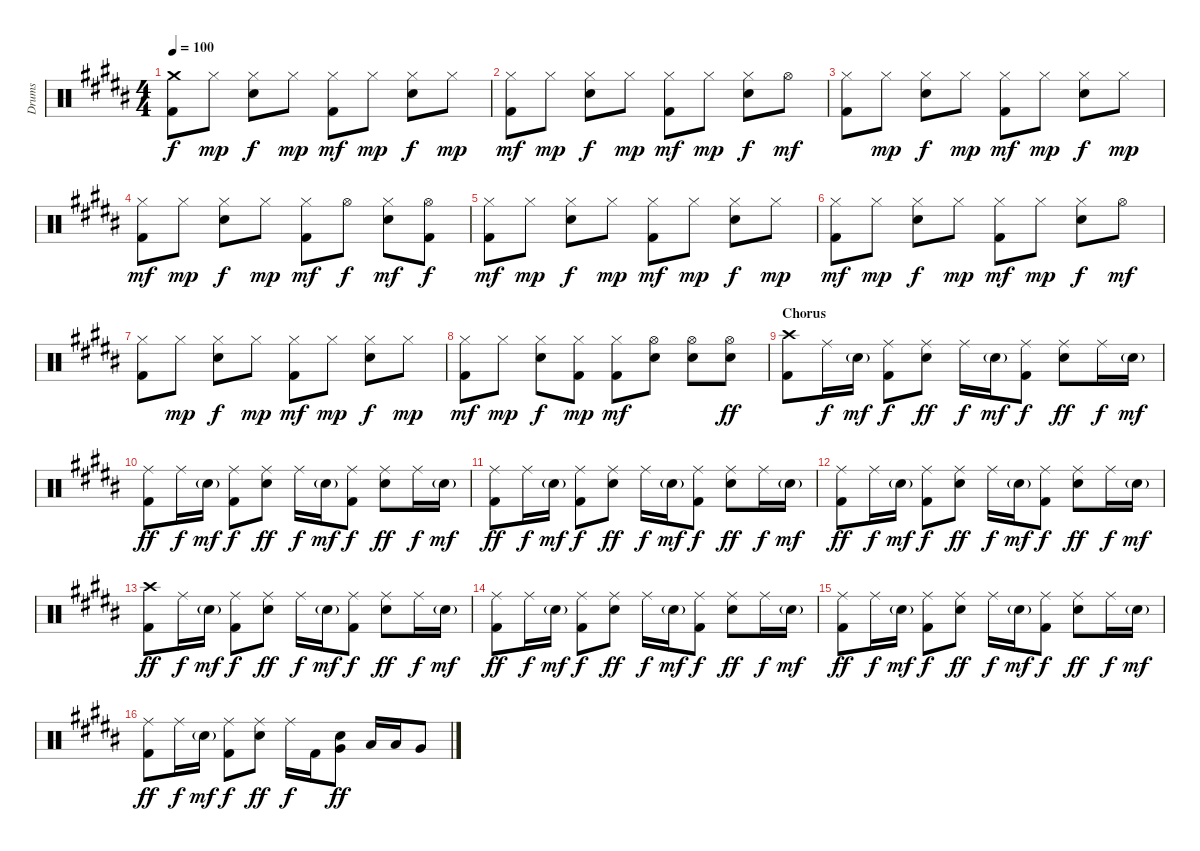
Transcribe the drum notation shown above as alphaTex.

\track ("Drums" "Drums") {instrument percussion}
\staff {score}
\articulation defaults
\ts (4 4)
\tempo 100
\clef neutral
\ks b
("Crash medium (hit)" "Kick (hit) 2").8{dy f} "Hi-Hat (closed)".8{dy mp} ("Hi-Hat (closed)" "Snare (hit) 2").8{dy f} "Hi-Hat (closed)".8{dy mp} ("Hi-Hat (closed)" "Kick (hit) 2").8{dy mf} "Hi-Hat (closed)".8{dy mp} ("Hi-Hat (closed)" "Snare (hit) 2").8{dy f} "Hi-Hat (closed)".8{dy mp} |
("Hi-Hat (closed)" "Kick (hit) 2").8{dy mf} "Hi-Hat (closed)".8{dy mp} ("Hi-Hat (closed)" "Snare (hit) 2").8{dy f} "Hi-Hat (closed)".8{dy mp} ("Hi-Hat (closed)" "Kick (hit) 2").8{dy mf} "Hi-Hat (closed)".8{dy mp} ("Hi-Hat (closed)" "Snare (hit) 2").8{dy f} "Hi-Hat (open)".8{dy mf} |
("Hi-Hat (closed)" "Kick (hit) 2").8 "Hi-Hat (closed)".8{dy mp} ("Hi-Hat (closed)" "Snare (hit) 2").8{dy f} "Hi-Hat (closed)".8{dy mp} ("Hi-Hat (closed)" "Kick (hit) 2").8{dy mf} "Hi-Hat (closed)".8{dy mp} ("Hi-Hat (closed)" "Snare (hit) 2").8{dy f} "Hi-Hat (closed)".8{dy mp} |
("Hi-Hat (closed)" "Kick (hit) 2").8{dy mf} "Hi-Hat (closed)".8{dy mp} ("Hi-Hat (closed)" "Snare (hit) 2").8{dy f} "Hi-Hat (closed)".8{dy mp} ("Hi-Hat (closed)" "Kick (hit) 2").8{dy mf} "Hi-Hat (open)".8{dy f} ("Hi-Hat (closed)" "Snare (hit) 2").8{dy mf} ("Hi-Hat (open)" "Kick (hit) 2").8{dy f} |
("Hi-Hat (closed)" "Kick (hit) 2").8{dy mf} "Hi-Hat (closed)".8{dy mp} ("Hi-Hat (closed)" "Snare (hit) 2").8{dy f} "Hi-Hat (closed)".8{dy mp} ("Hi-Hat (closed)" "Kick (hit) 2").8{dy mf} "Hi-Hat (closed)".8{dy mp} ("Hi-Hat (closed)" "Snare (hit) 2").8{dy f} "Hi-Hat (closed)".8{dy mp} |
("Hi-Hat (closed)" "Kick (hit) 2").8{dy mf} "Hi-Hat (closed)".8{dy mp} ("Hi-Hat (closed)" "Snare (hit) 2").8{dy f} "Hi-Hat (closed)".8{dy mp} ("Hi-Hat (closed)" "Kick (hit) 2").8{dy mf} "Hi-Hat (closed)".8{dy mp} ("Hi-Hat (closed)" "Snare (hit) 2").8{dy f} "Hi-Hat (open)".8{dy mf} |
("Hi-Hat (closed)" "Kick (hit) 2").8 "Hi-Hat (closed)".8{dy mp} ("Hi-Hat (closed)" "Snare (hit) 2").8{dy f} "Hi-Hat (closed)".8{dy mp} ("Hi-Hat (closed)" "Kick (hit) 2").8{dy mf} "Hi-Hat (closed)".8{dy mp} ("Hi-Hat (closed)" "Snare (hit) 2").8{dy f} "Hi-Hat (closed)".8{dy mp} |
("Hi-Hat (closed)" "Kick (hit) 2").8{dy mf} "Hi-Hat (closed)".8{dy mp} ("Hi-Hat (closed)" "Snare (hit) 2").8{dy f} ("Hi-Hat (closed)" "Kick (hit) 2").8{dy mp} ("Hi-Hat (closed)" "Kick (hit) 2").8{dy mf} ("Hi-Hat (open)" "Snare (hit) 2").8 ("Hi-Hat (open)" "Snare (hit) 2").8 ("Hi-Hat (open)" "Snare (hit) 2").8{dy ff} |
\section ("" "Chorus")
("Crash high (hit)" "Kick (hit) 2").8 "Ride (middle)".16{dy f} "Snare (hit) 2"{g}.16{dy mf} ("Ride (middle)" "Kick (hit) 2").8{dy f} ("Ride (middle)" "Snare (hit) 2").8{dy ff} "Ride (middle)".16{dy f} "Snare (hit) 2"{g}.16{dy mf} ("Ride (middle)" "Kick (hit) 2").8{dy f} ("Ride (middle)" "Snare (hit) 2").8{dy ff} "Ride (middle)".16{dy f} "Snare (hit) 2"{g}.16{dy mf} |
("Ride (middle)" "Kick (hit) 2").8{dy ff} "Ride (middle)".16{dy f} "Snare (hit) 2"{g}.16{dy mf} ("Ride (middle)" "Kick (hit) 2").8{dy f} ("Ride (middle)" "Snare (hit) 2").8{dy ff} "Ride (middle)".16{dy f} "Snare (hit) 2"{g}.16{dy mf} ("Ride (middle)" "Kick (hit) 2").8{dy f} ("Ride (middle)" "Snare (hit) 2").8{dy ff} "Ride (middle)".16{dy f} "Snare (hit) 2"{g}.16{dy mf} |
("Ride (middle)" "Kick (hit) 2").8{dy ff} "Ride (middle)".16{dy f} "Snare (hit) 2"{g}.16{dy mf} ("Ride (middle)" "Kick (hit) 2").8{dy f} ("Ride (middle)" "Snare (hit) 2").8{dy ff} "Ride (middle)".16{dy f} "Snare (hit) 2"{g}.16{dy mf} ("Ride (middle)" "Kick (hit) 2").8{dy f} ("Ride (middle)" "Snare (hit) 2").8{dy ff} "Ride (middle)".16{dy f} "Snare (hit) 2"{g}.16{dy mf} |
("Ride (middle)" "Kick (hit) 2").8{dy ff} "Ride (middle)".16{dy f} "Snare (hit) 2"{g}.16{dy mf} ("Ride (middle)" "Kick (hit) 2").8{dy f} ("Ride (middle)" "Snare (hit) 2").8{dy ff} "Ride (middle)".16{dy f} "Snare (hit) 2"{g}.16{dy mf} ("Ride (middle)" "Kick (hit) 2").8{dy f} ("Ride (middle)" "Snare (hit) 2").8{dy ff} "Ride (middle)".16{dy f} "Snare (hit) 2"{g}.16{dy mf} |
("Crash high (hit)" "Kick (hit) 2").8{dy ff} "Ride (middle)".16{dy f} "Snare (hit) 2"{g}.16{dy mf} ("Ride (middle)" "Kick (hit) 2").8{dy f} ("Ride (middle)" "Snare (hit) 2").8{dy ff} "Ride (middle)".16{dy f} "Snare (hit) 2"{g}.16{dy mf} ("Ride (middle)" "Kick (hit) 2").8{dy f} ("Ride (middle)" "Snare (hit) 2").8{dy ff} "Ride (middle)".16{dy f} "Snare (hit) 2"{g}.16{dy mf} |
("Ride (middle)" "Kick (hit) 2").8{dy ff} "Ride (middle)".16{dy f} "Snare (hit) 2"{g}.16{dy mf} ("Ride (middle)" "Kick (hit) 2").8{dy f} ("Ride (middle)" "Snare (hit) 2").8{dy ff} "Ride (middle)".16{dy f} "Snare (hit) 2"{g}.16{dy mf} ("Ride (middle)" "Kick (hit) 2").8{dy f} ("Ride (middle)" "Snare (hit) 2").8{dy ff} "Ride (middle)".16{dy f} "Snare (hit) 2"{g}.16{dy mf} |
("Ride (middle)" "Kick (hit) 2").8{dy ff} "Ride (middle)".16{dy f} "Snare (hit) 2"{g}.16{dy mf} ("Ride (middle)" "Kick (hit) 2").8{dy f} ("Ride (middle)" "Snare (hit) 2").8{dy ff} "Ride (middle)".16{dy f} "Snare (hit) 2"{g}.16{dy mf} ("Ride (middle)" "Kick (hit) 2").8{dy f} ("Ride (middle)" "Snare (hit) 2").8{dy ff} "Ride (middle)".16{dy f} "Snare (hit) 2"{g}.16{dy mf} |
("Ride (middle)" "Kick (hit) 2").8{dy ff} "Ride (middle)".16{dy f} "Snare (hit) 2"{g}.16{dy mf} ("Ride (middle)" "Kick (hit) 2").8{dy f} ("Ride (middle)" "Snare (hit) 2").8{dy ff} "Ride (middle)".16{dy f} "Kick (hit) 2".16 ("Very Low Tom (hit)" "Snare (hit) 2").8{dy ff} "Low Tom (hit)".16 "Low Tom (hit)".16 "Very Low Tom (hit)".8
